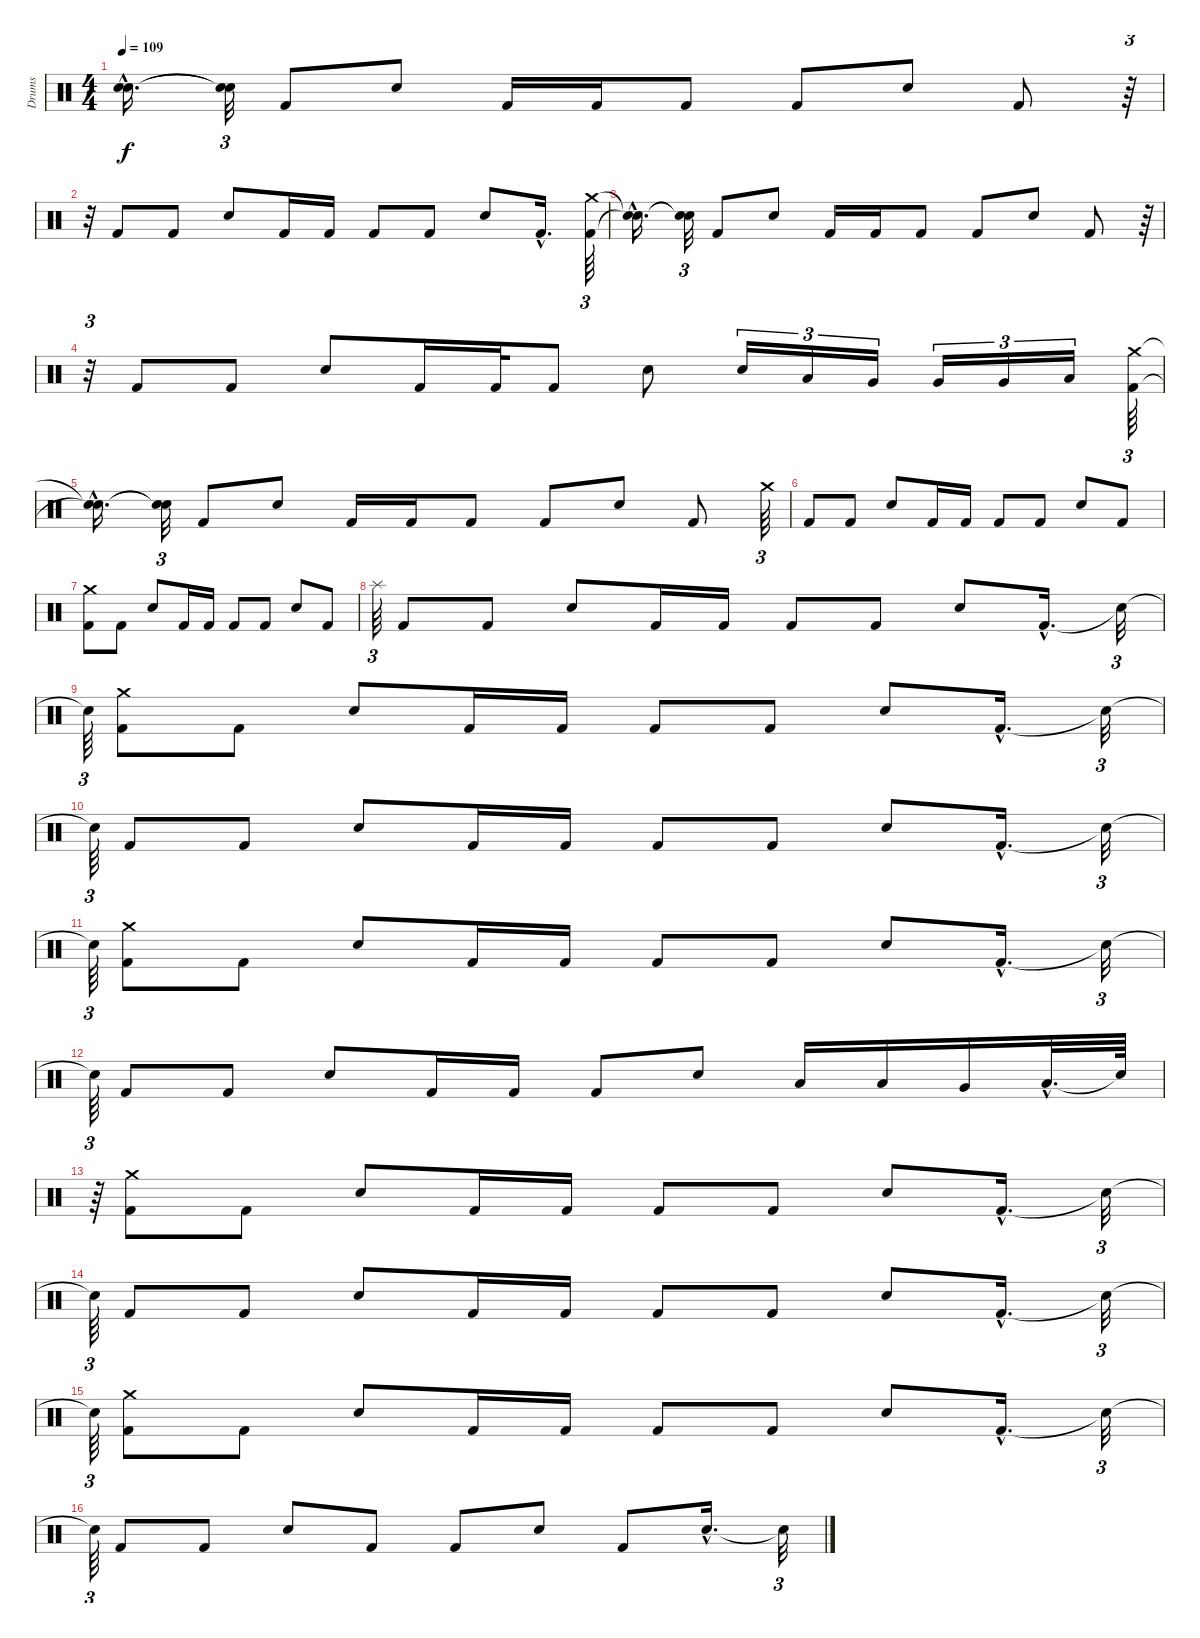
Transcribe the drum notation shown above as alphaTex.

\track ("Drums" "Drums") {instrument percussion}
\staff {score}
\articulation defaults
\ts (4 4)
\tempo 109
\clef neutral
\ks c
("Snare (hit)"{hac t} "Snare (hit)"{hac t}).16{d dy f} ("Snare (hit)"{t} "Snare (hit)"{t}).32{tu (3 2)} "Kick (hit) 2".8 "Snare (hit) 2".8 "Kick (hit) 2".16 "Kick (hit) 2".16 "Kick (hit) 2".8 "Kick (hit) 2".8 "Snare (hit) 2".8 "Kick (hit) 2".8 r.64{tu (3 2)} |
r.32{tu (3 2)} "Kick (hit) 2".8 "Kick (hit) 2".8 "Snare (hit) 2".8 "Kick (hit) 2".16 "Kick (hit) 2".16 "Kick (hit) 2".8 "Kick (hit) 2".8 "Snare (hit) 2".8 "Kick (hit) 2"{hac}.16{d} ("Crash medium (hit)" "Kick (hit) 2").64{tu (3 2)} |
("Snare (hit)"{hac t} "Snare (hit)"{hac t}).16{d} ("Snare (hit)"{t} "Snare (hit)"{t}).32{tu (3 2)} "Kick (hit) 2".8 "Snare (hit) 2".8 "Kick (hit) 2".16 "Kick (hit) 2".16 "Kick (hit) 2".8 "Kick (hit) 2".8 "Snare (hit) 2".8 "Kick (hit) 2".8 r.64{tu (3 2)} |
r.32{tu (3 2)} "Kick (hit) 2".8 "Kick (hit) 2".8 "Snare (hit) 2".8 "Kick (hit) 2".16 "Kick (hit) 2".32 "Kick (hit) 2".8 "Snare (hit) 2".8 "Snare (hit) 2".16{tu (3 2)} "Low Tom (hit)".16{tu (3 2)} "Very Low Tom (hit)".16{tu (3 2)} "Very Low Tom (hit)".16{tu (3 2)} "Very Low Tom (hit)".16{tu (3 2)} "Low Floor Tom (hit)".16{tu (3 2)} ("Crash medium (hit)" "Kick (hit) 2").64{tu (3 2)} |
("Snare (hit)"{hac t} "Snare (hit)"{hac t}).16{d} ("Snare (hit)"{t} "Snare (hit)"{t}).32{tu (3 2)} "Kick (hit) 2".8 "Snare (hit) 2".8 "Kick (hit) 2".16 "Kick (hit) 2".16 "Kick (hit) 2".8 "Kick (hit) 2".8 "Snare (hit) 2".8 "Kick (hit) 2".8 "Crash medium (hit)".64{tu (3 2)} |
"Kick (hit) 2".8 "Kick (hit) 2".8 "Snare (hit) 2".8 "Kick (hit) 2".16 "Kick (hit) 2".16 "Kick (hit) 2".8 "Kick (hit) 2".8 "Snare (hit) 2".8 "Kick (hit) 2".8 |
("Crash medium (hit)" "Kick (hit) 2").8 "Kick (hit) 2".8 "Snare (hit) 2".8 "Kick (hit) 2".16 "Kick (hit) 2".16 "Kick (hit) 2".8 "Kick (hit) 2".8 "Snare (hit) 2".8 "Kick (hit) 2".8 |
"Splash (hit)".64{tu (3 2)} "Kick (hit) 2".8 "Kick (hit) 2".8 "Snare (hit) 2".8 "Kick (hit) 2".16 "Kick (hit) 2".16 "Kick (hit) 2".8 "Kick (hit) 2".8 "Snare (hit) 2".8 "Kick (hit) 2"{hac}.16{d} "Snare (hit)"{t}.32{tu (3 2)} |
"Snare (hit)"{t}.64{tu (3 2)} ("Crash medium (hit)" "Kick (hit) 2").8 "Kick (hit) 2".8 "Snare (hit) 2".8 "Kick (hit) 2".16 "Kick (hit) 2".16 "Kick (hit) 2".8 "Kick (hit) 2".8 "Snare (hit) 2".8 "Kick (hit) 2"{hac}.16{d} "Snare (hit)"{t}.32{tu (3 2)} |
"Snare (hit)"{t}.64{tu (3 2)} "Kick (hit) 2".8 "Kick (hit) 2".8 "Snare (hit) 2".8 "Kick (hit) 2".16 "Kick (hit) 2".16 "Kick (hit) 2".8 "Kick (hit) 2".8 "Snare (hit) 2".8 "Kick (hit) 2"{hac}.16{d} "Snare (hit)"{t}.32{tu (3 2)} |
"Snare (hit)"{t}.64{tu (3 2)} ("Crash medium (hit)" "Kick (hit) 2").8 "Kick (hit) 2".8 "Snare (hit) 2".8 "Kick (hit) 2".16 "Kick (hit) 2".16 "Kick (hit) 2".8 "Kick (hit) 2".8 "Snare (hit) 2".8 "Kick (hit) 2"{hac}.16{d} "Snare (hit)"{t}.32{tu (3 2)} |
"Snare (hit)"{t}.64{tu (3 2)} "Kick (hit) 2".8 "Kick (hit) 2".8 "Snare (hit) 2".8 "Kick (hit) 2".16 "Kick (hit) 2".16 "Kick (hit) 2".8 "Snare (hit) 2".8 "Low Tom (hit)".16 "Low Tom (hit)".16 "Very Low Tom (hit)".16 "Low Floor Tom (hit)"{hac}.32{d} "Snare (hit)"{t}.64 |
r.64{tu (3 2)} ("Crash medium (hit)" "Kick (hit) 2").8 "Kick (hit) 2".8 "Snare (hit) 2".8 "Kick (hit) 2".16 "Kick (hit) 2".16 "Kick (hit) 2".8 "Kick (hit) 2".8 "Snare (hit) 2".8 "Kick (hit) 2"{hac}.16{d} "Snare (hit)"{t}.32{tu (3 2)} |
"Snare (hit)"{t}.64{tu (3 2)} "Kick (hit) 2".8 "Kick (hit) 2".8 "Snare (hit) 2".8 "Kick (hit) 2".16 "Kick (hit) 2".16 "Kick (hit) 2".8 "Kick (hit) 2".8 "Snare (hit) 2".8 "Kick (hit) 2"{hac}.16{d} "Snare (hit)"{t}.32{tu (3 2)} |
"Snare (hit)"{t}.64{tu (3 2)} ("Crash medium (hit)" "Kick (hit) 2").8 "Kick (hit) 2".8 "Snare (hit) 2".8 "Kick (hit) 2".16 "Kick (hit) 2".16 "Kick (hit) 2".8 "Kick (hit) 2".8 "Snare (hit) 2".8 "Kick (hit) 2"{hac}.16{d} "Snare (hit)"{t}.32{tu (3 2)} |
"Snare (hit)"{t}.64{tu (3 2)} "Kick (hit) 2".8 "Kick (hit) 2".8 "Snare (hit) 2".8 "Kick (hit) 2".8 "Kick (hit) 2".8 "Snare (hit) 2".8 "Kick (hit) 2".8 "Snare (hit) 2"{hac}.16{d} "Snare (hit)"{t}.32{tu (3 2)}
